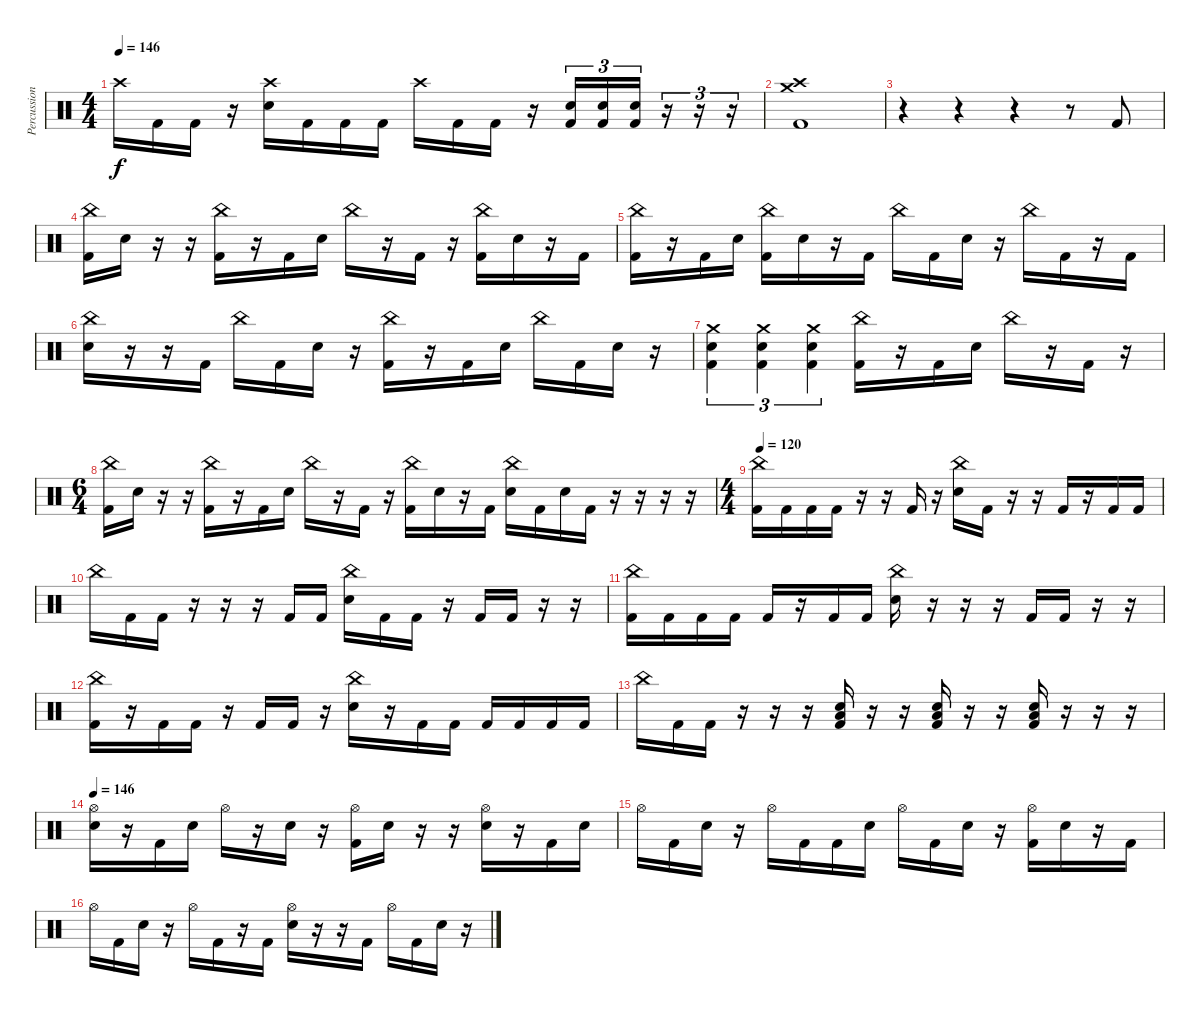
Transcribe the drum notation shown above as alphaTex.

\track ("Percussion" "Percussion") {instrument percussion}
\staff {score}
\articulation defaults
\ts (4 4)
\tempo 146
\clef neutral
\ks c "Crash high (hit)".16{dy f} "Kick (hit) 2".16 "Kick (hit) 2".16
r.16 ("Crash high (hit)" "Electric Snare (hit)").16 "Kick (hit) 2".16 "Kick (hit) 2".16 "Kick (hit) 2".16 "Crash high (hit)".16 "Kick (hit) 2".16 "Kick (hit) 2".16 r.16 ("Electric Snare (hit)" "Kick (hit) 2").16{tu (3 2)} ("Electric Snare (hit)" "Kick (hit) 2").16{tu (3 2)} ("Electric Snare (hit)" "Kick (hit) 2").16{tu (3 2)} r.16{tu (3 2)} r.16{tu (3 2)} r.16{tu (3 2)} |
("Crash medium (hit)" "Crash high (hit)" "Kick (hit) 2").1 |
r.4 r.4 r.4 r.8 "Kick (hit) 2".8 |
("China (hit)" "Kick (hit) 2").16 "Electric Snare (hit)".16 r.16 r.16 ("China (hit)" "Kick (hit) 2").16 r.16 "Kick (hit) 2".16 "Electric Snare (hit)".16 "China (hit)".16 r.16 "Kick (hit) 2".16 r.16 ("China (hit)" "Kick (hit) 2").16 "Electric Snare (hit)".16 r.16 "Kick (hit) 2".16 |
("China (hit)" "Kick (hit) 2").16 r.16 "Kick (hit) 2".16 "Electric Snare (hit)".16 ("China (hit)" "Kick (hit) 2").16 "Electric Snare (hit)".16 r.16 "Kick (hit) 2".16 "China (hit)".16 "Kick (hit) 2".16 "Electric Snare (hit)".16 r.16 "China (hit)".16 "Kick (hit) 2".16 r.16 "Kick (hit) 2".16 |
("China (hit)" "Electric Snare (hit)").16 r.16 r.16 "Kick (hit) 2".16 "China (hit)".16 "Kick (hit) 2".16 "Electric Snare (hit)".16 r.16 ("China (hit)" "Kick (hit) 2").16 r.16 "Kick (hit) 2".16 "Electric Snare (hit)".16 "China (hit)".16 "Kick (hit) 2".16 "Electric Snare (hit)".16 r.16 |
("Crash medium (hit)" "Electric Snare (hit)" "Kick (hit) 2").4{tu (3 2)} ("Crash medium (hit)" "Electric Snare (hit)" "Kick (hit) 2").4{tu (3 2)} ("Crash medium (hit)" "Electric Snare (hit)" "Kick (hit) 2").4{tu (3 2)} ("China (hit)" "Kick (hit) 2").16 r.16 "Kick (hit) 2".16 "Electric Snare (hit)".16 "China (hit)".16 r.16 "Kick (hit) 2".16 r.16 |
\ts (6 4)
("China (hit)" "Kick (hit) 2").16 "Electric Snare (hit)".16 r.16 r.16 ("China (hit)" "Kick (hit) 2").16 r.16 "Kick (hit) 2".16 "Electric Snare (hit)".16 "China (hit)".16 r.16 "Kick (hit) 2".16 r.16 ("China (hit)" "Kick (hit) 2").16 "Electric Snare (hit)".16 r.16 "Kick (hit) 2".16 ("China (hit)" "Electric Snare (hit)").16 "Kick (hit) 2".16 "Electric Snare (hit)".16 "Kick (hit) 2".16 r.16 r.16 r.16 r.16 |
\ts (4 4)
\tempo 120
("China (hit)" "Kick (hit) 2").16 "Kick (hit) 2".16 "Kick (hit) 2".16 "Kick (hit) 2".16 r.16 r.16 "Kick (hit) 2".16 r.16 ("China (hit)" "Electric Snare (hit)").16 "Kick (hit) 2".16 r.16 r.16 "Kick (hit) 2".16 r.16 "Kick (hit) 2".16 "Kick (hit) 2".16 |
"China (hit)".16 "Kick (hit) 2".16 "Kick (hit) 2".16 r.16 r.16 r.16 "Kick (hit) 2".16 "Kick (hit) 2".16 ("China (hit)" "Electric Snare (hit)").16 "Kick (hit) 2".16 "Kick (hit) 2".16 r.16 "Kick (hit) 2".16 "Kick (hit) 2".16 r.16 r.16 |
("China (hit)" "Kick (hit) 2").16 "Kick (hit) 2".16 "Kick (hit) 2".16 "Kick (hit) 2".16 "Kick (hit) 2".16 r.16 "Kick (hit) 2".16 "Kick (hit) 2".16 ("China (hit)" "Electric Snare (hit)").16 r.16 r.16 r.16 "Kick (hit) 2".16 "Kick (hit) 2".16 r.16 r.16 |
("China (hit)" "Kick (hit) 2").16 r.16 "Kick (hit) 2".16 "Kick (hit) 2".16 r.16 "Kick (hit) 2".16 "Kick (hit) 2".16 r.16 ("China (hit)" "Electric Snare (hit)").16 r.16 "Kick (hit) 2".16 "Kick (hit) 2".16 "Kick (hit) 2".16 "Kick (hit) 2".16 "Kick (hit) 2".16 "Kick (hit) 2".16 |
"China (hit)".16 "Kick (hit) 2".16 "Kick (hit) 2".16 r.16 r.16 r.16 ("Electric Snare (hit)" "Low Tom (hit)" "Kick (hit) 2").16 r.16 r.16 ("Electric Snare (hit)" "Low Tom (hit)" "Kick (hit) 2").16 r.16 r.16 ("Electric Snare (hit)" "Low Tom (hit)" "Kick (hit) 2").16 r.16 r.16 r.16 |
\tempo 146
("Hi-Hat (open)" "Electric Snare (hit)").16 r.16 "Kick (hit) 2".16 "Electric Snare (hit)".16 "Hi-Hat (open)".16 r.16 "Electric Snare (hit)".16 r.16 ("Hi-Hat (open)" "Kick (hit) 2").16 "Electric Snare (hit)".16 r.16 r.16 ("Hi-Hat (open)" "Electric Snare (hit)").16 r.16 "Kick (hit) 2".16 "Electric Snare (hit)".16 |
"Hi-Hat (open)".16 "Kick (hit) 2".16 "Electric Snare (hit)".16 r.16 "Hi-Hat (open)".16 "Kick (hit) 2".16 "Kick (hit) 2".16 "Electric Snare (hit)".16 "Hi-Hat (open)".16 "Kick (hit) 2".16 "Electric Snare (hit)".16 r.16 ("Hi-Hat (open)" "Kick (hit) 2").16 "Electric Snare (hit)".16 r.16 "Kick (hit) 2".16 |
"Hi-Hat (open)".16 "Kick (hit) 2".16 "Electric Snare (hit)".16 r.16 "Hi-Hat (open)".16 "Kick (hit) 2".16 r.16 "Kick (hit) 2".16 ("Hi-Hat (open)" "Electric Snare (hit)").16 r.16 r.16 "Kick (hit) 2".16 "Hi-Hat (open)".16 "Kick (hit) 2".16 "Electric Snare (hit)".16 r.16
